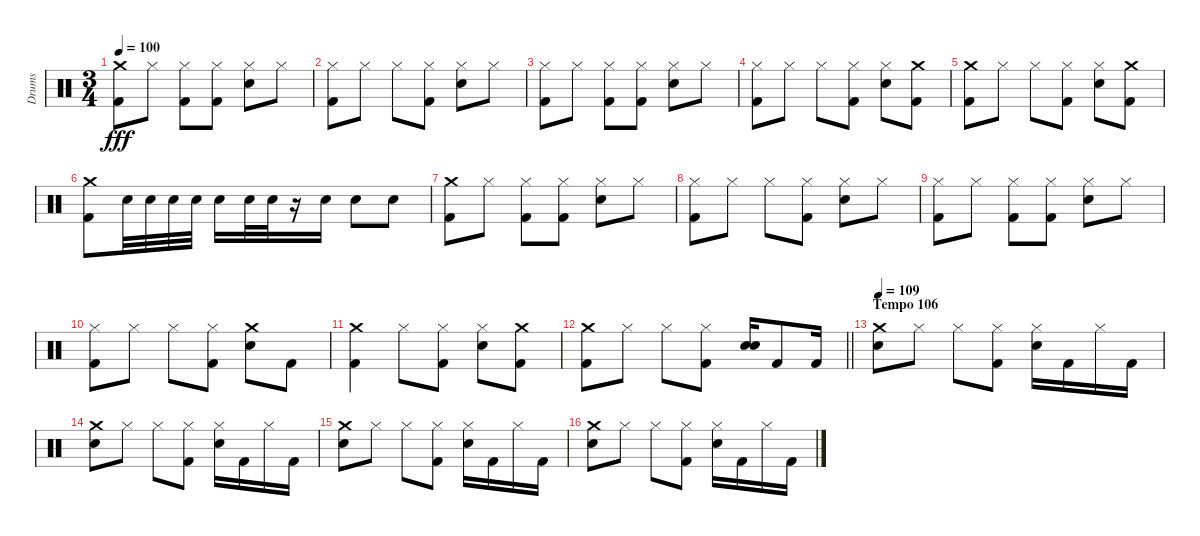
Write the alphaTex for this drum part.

\track ("Drums" "Drums") {instrument percussion}
\staff {score}
\articulation defaults
\ts (3 4)
\tempo 100
\clef neutral
\ks c
("Crash medium (hit)" "Kick (hit) 2").8{dy fff} "Hi-Hat (closed)".8 ("Kick (hit) 2" "Hi-Hat (closed)").8 ("Kick (hit) 2" "Hi-Hat (closed)").8 ("Snare (hit) 2" "Hi-Hat (closed)").8 "Hi-Hat (closed)".8 |
("Hi-Hat (closed)" "Kick (hit) 2").8 "Hi-Hat (closed)".8 "Hi-Hat (closed)".8 ("Kick (hit) 2" "Hi-Hat (closed)").8 ("Hi-Hat (closed)" "Snare (hit) 2").8 "Hi-Hat (closed)".8 |
("Hi-Hat (closed)" "Kick (hit) 2").8 "Hi-Hat (closed)".8 ("Kick (hit) 2" "Hi-Hat (closed)").8 ("Kick (hit) 2" "Hi-Hat (closed)").8 ("Hi-Hat (closed)" "Snare (hit) 2").8 "Hi-Hat (closed)".8 |
("Hi-Hat (closed)" "Kick (hit) 2").8 "Hi-Hat (closed)".8 "Hi-Hat (closed)".8 ("Kick (hit) 2" "Hi-Hat (closed)").8 ("Hi-Hat (closed)" "Snare (hit) 2").8 ("Crash medium (hit)" "Kick (hit) 2").8 |
("Kick (hit) 2" "Crash medium (hit)").8 "Hi-Hat (closed)".8 "Hi-Hat (closed)".8 ("Kick (hit) 2" "Hi-Hat (closed)").8 ("Snare (hit) 2" "Hi-Hat (closed)").8 ("Kick (hit) 2" "Crash medium (hit)").8 |
("Kick (hit) 2" "Crash medium (hit)").8 "Snare (hit) 2".32 "Snare (hit) 2".32 "Snare (hit) 2".32 "Snare (hit) 2".32 "Snare (hit) 2".16 "Snare (hit) 2".32 "Snare (hit) 2".32 r.16 "Snare (hit) 2".16 "Snare (hit) 2".8 "Snare (hit) 2".8 |
("Crash medium (hit)" "Kick (hit) 2").8 "Hi-Hat (closed)".8 ("Kick (hit) 2" "Hi-Hat (closed)").8 ("Kick (hit) 2" "Hi-Hat (closed)").8 ("Snare (hit) 2" "Hi-Hat (closed)").8 "Hi-Hat (closed)".8 |
("Hi-Hat (closed)" "Kick (hit) 2").8 "Hi-Hat (closed)".8 "Hi-Hat (closed)".8 ("Kick (hit) 2" "Hi-Hat (closed)").8 ("Hi-Hat (closed)" "Snare (hit) 2").8 "Hi-Hat (closed)".8 |
("Hi-Hat (closed)" "Kick (hit) 2").8 "Hi-Hat (closed)".8 ("Kick (hit) 2" "Hi-Hat (closed)").8 ("Kick (hit) 2" "Hi-Hat (closed)").8 ("Hi-Hat (closed)" "Snare (hit) 2").8 "Hi-Hat (closed)".8 |
("Kick (hit) 2" "Hi-Hat (closed)").8 "Hi-Hat (closed)".8 "Hi-Hat (closed)".8 ("Kick (hit) 2" "Hi-Hat (closed)").8 ("Snare (hit) 2" "Crash medium (hit)").8 "Kick (hit) 2".8 |
("Kick (hit) 2" "Crash medium (hit)").4 "Hi-Hat (closed)".8 ("Kick (hit) 2" "Hi-Hat (closed)").8 ("Hi-Hat (closed)" "Snare (hit) 2").8 ("Kick (hit) 2" "Crash medium (hit)").8 |
\barLineRight lightlight
("Kick (hit) 2" "Crash medium (hit)").8 "Hi-Hat (closed)".8 "Hi-Hat (closed)".8 ("Kick (hit) 2" "Hi-Hat (closed)").8 ("Snare (hit) 2" "Snare (hit) 2").16 "Kick (hit) 2".8 "Kick (hit) 2".16 |
\section ("" "Tempo 106")
\tempo 106
\tempo 109
("Snare (hit) 2" "Crash medium (hit)").8 "Hi-Hat (closed)".8 "Hi-Hat (closed)".8 ("Kick (hit) 2" "Hi-Hat (closed)").8 ("Snare (hit) 2" "Hi-Hat (closed)").16 "Kick (hit) 2".16 "Hi-Hat (closed)".16 "Kick (hit) 2".16 |
("Snare (hit) 2" "Crash medium (hit)").8 "Hi-Hat (closed)".8 "Hi-Hat (closed)".8 ("Kick (hit) 2" "Hi-Hat (closed)").8 ("Snare (hit) 2" "Hi-Hat (closed)").16 "Kick (hit) 2".16 "Hi-Hat (closed)".16 "Kick (hit) 2".16 |
("Snare (hit) 2" "Crash medium (hit)").8 "Hi-Hat (closed)".8 "Hi-Hat (closed)".8 ("Kick (hit) 2" "Hi-Hat (closed)").8 ("Snare (hit) 2" "Hi-Hat (closed)").16 "Kick (hit) 2".16 "Hi-Hat (closed)".16 "Kick (hit) 2".16 |
("Snare (hit) 2" "Crash medium (hit)").8 "Hi-Hat (closed)".8 "Hi-Hat (closed)".8 ("Kick (hit) 2" "Hi-Hat (closed)").8 ("Snare (hit) 2" "Hi-Hat (closed)").16 "Kick (hit) 2".16 "Hi-Hat (closed)".16 "Kick (hit) 2".16
